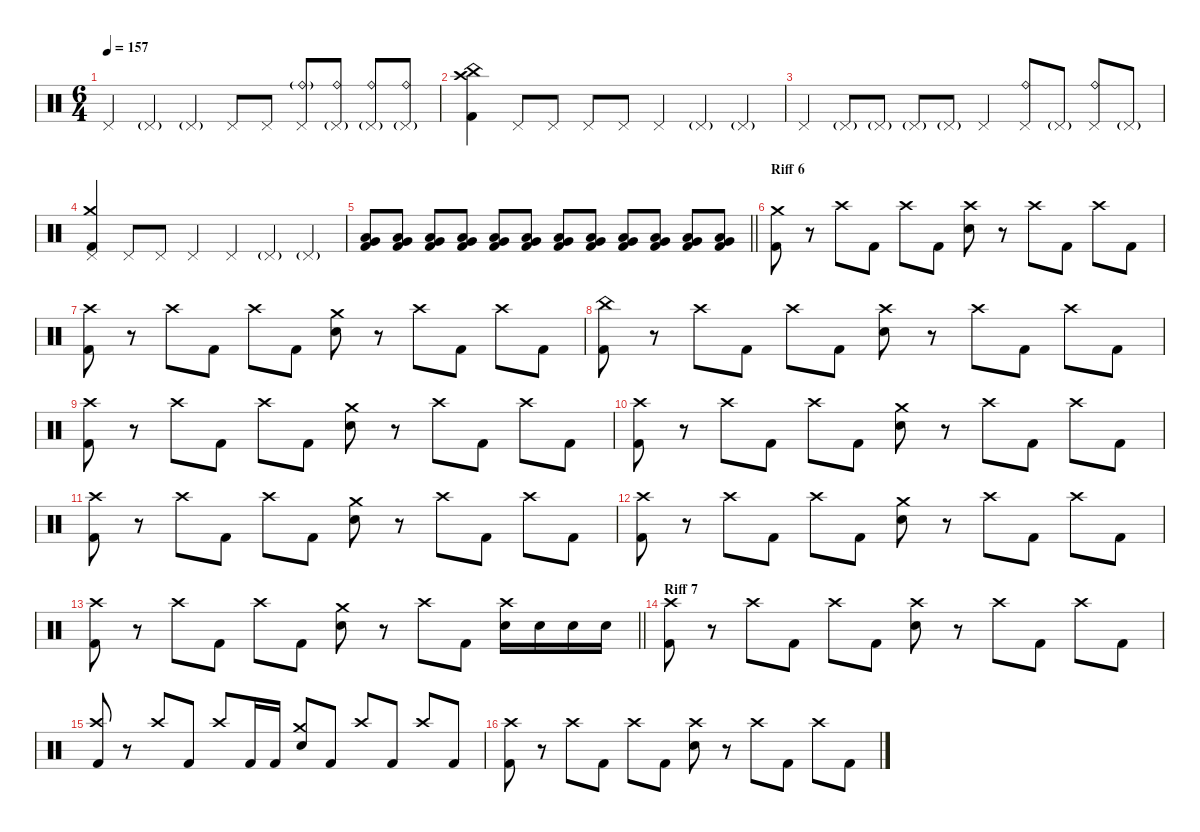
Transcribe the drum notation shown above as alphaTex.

\defaultSystemsLayout 4
\hideDynamics
\bracketExtendMode nobrackets
\singleTrackTrackNamePolicy hidden
\multiTrackTrackNamePolicy hidden
\firstSystemTrackNameMode fullname
\firstSystemTrackNameOrientation horizontal
\otherSystemsTrackNameOrientation horizontal
\track ("Drums" "drm.") {defaultSystemsLayout 4 instrument percussion}
\staff {score}
\articulation defaults
\ts (6 4)
\tempo 157
\clef neutral
\ks c "Pedal Hi-Hat (hit)".4{dy f beam Up} "Pedal Hi-Hat (hit)"{g}.4{dy mf beam Up} "Pedal Hi-Hat (hit)"{g}.4{beam Up} "Pedal Hi-Hat (hit)".8{dy f beam Up} "Pedal Hi-Hat (hit)".8{beam Up}
("Pedal Hi-Hat (hit)" "Ride (bell)"{g}).8{beam Up} ("Pedal Hi-Hat (hit)"{g} "Ride (bell)").8{beam Up} ("Pedal Hi-Hat (hit)"{g} "Ride (bell)").8{beam Up} ("Pedal Hi-Hat (hit)"{g} "Ride (bell)").8{beam Up} |
("China (hit)" "Crash high (hit)" "Kick (hit) 2").4{beam Down} "Pedal Hi-Hat (hit)".8{beam Up} "Pedal Hi-Hat (hit)".8{beam Up} "Pedal Hi-Hat (hit)".8{beam Up} "Pedal Hi-Hat (hit)".8{beam Up} "Pedal Hi-Hat (hit)".4{beam Up} "Pedal Hi-Hat (hit)"{g}.4{dy mf beam Up} "Pedal Hi-Hat (hit)"{g}.4{beam Up} |
"Pedal Hi-Hat (hit)".4{dy f beam Up} "Pedal Hi-Hat (hit)"{g}.8{dy mf beam Up} "Pedal Hi-Hat (hit)"{g}.8{beam Up} "Pedal Hi-Hat (hit)"{g}.8{beam Up} "Pedal Hi-Hat (hit)"{g}.8{beam Up} "Pedal Hi-Hat (hit)".4{dy f beam Up} ("Pedal Hi-Hat (hit)" "Ride (bell)").8{beam Up} "Pedal Hi-Hat (hit)"{g}.8{dy mf beam Up} ("Pedal Hi-Hat (hit)" "Ride (bell)").8{dy f beam Up} "Pedal Hi-Hat (hit)"{g}.8{dy mf beam Up} |
("Crash medium (hit)" "Pedal Hi-Hat (hit)" "Kick (hit) 2").4{dy f beam Up} "Pedal Hi-Hat (hit)".8{beam Up} "Pedal Hi-Hat (hit)".8{beam Up} "Pedal Hi-Hat (hit)".4{beam Up} "Pedal Hi-Hat (hit)".4{beam Up} "Pedal Hi-Hat (hit)"{g}.4{dy mf beam Up} "Pedal Hi-Hat (hit)"{g}.4{beam Up} |
\barLineRight lightlight
("Very Low Tom (hit)" "Low Tom (hit)" "Kick (hit) 2").8{dy f beam Up} ("Very Low Tom (hit)" "Low Tom (hit)" "Kick (hit) 2").8{beam Up} ("Very Low Tom (hit)" "Low Tom (hit)" "Kick (hit) 2").8{beam Up} ("Very Low Tom (hit)" "Low Tom (hit)" "Kick (hit) 2").8{beam Up} ("Very Low Tom (hit)" "Low Tom (hit)" "Kick (hit) 2").8{beam Up} ("Very Low Tom (hit)" "Low Tom (hit)" "Kick (hit) 2").8{beam Up} ("Very Low Tom (hit)" "Low Tom (hit)" "Kick (hit) 2").8{beam Up} ("Very Low Tom (hit)" "Low Tom (hit)" "Kick (hit) 2").8{beam Up} ("Very Low Tom (hit)" "Low Tom (hit)" "Kick (hit) 2").8{beam Up} ("Very Low Tom (hit)" "Low Tom (hit)" "Kick (hit) 2").8{beam Up} ("Very Low Tom (hit)" "Low Tom (hit)" "Kick (hit) 2").8{beam Up} ("Very Low Tom (hit)" "Low Tom (hit)" "Kick (hit) 2").8{beam Up} |
\section ("" "Riff 6")
("Crash medium (hit)" "Kick (hit) 2").8{beam Down} r.8{beam Down} "Crash high (hit)".8{beam Down} "Kick (hit) 2".8{beam Down} "Crash high (hit)".8{beam Down} "Kick (hit) 2".8{beam Down} ("Crash high (hit)" "Snare (hit) 2").8{beam Down} r.8{beam Down} "Crash high (hit)".8{beam Down} "Kick (hit) 2".8{beam Down} "Crash high (hit)".8{beam Down} "Kick (hit) 2".8{beam Down} |
("Crash high (hit)" "Kick (hit) 2").8{beam Down} r.8{beam Down} "Crash high (hit)".8{beam Down} "Kick (hit) 2".8{beam Down} "Crash high (hit)".8{beam Down} "Kick (hit) 2".8{beam Down} ("Crash medium (hit)" "Snare (hit) 2").8{beam Down} r.8{beam Down} "Crash high (hit)".8{beam Down} "Kick (hit) 2".8{beam Down} "Crash high (hit)".8{beam Down} "Kick (hit) 2".8{beam Down} |
("China (hit)" "Kick (hit) 2").8{beam Down} r.8{beam Down} "Crash high (hit)".8{beam Down} "Kick (hit) 2".8{beam Down} "Crash high (hit)".8{beam Down} "Kick (hit) 2".8{beam Down} ("Crash high (hit)" "Snare (hit) 2").8{beam Down} r.8{beam Down} "Crash high (hit)".8{beam Down} "Kick (hit) 2".8{beam Down} "Crash high (hit)".8{beam Down} "Kick (hit) 2".8{beam Down} |
("Crash high (hit)" "Kick (hit) 2").8{beam Down} r.8{beam Down} "Crash high (hit)".8{beam Down} "Kick (hit) 2".8{beam Down} "Crash high (hit)".8{beam Down} "Kick (hit) 2".8{beam Down} ("Crash medium (hit)" "Snare (hit) 2").8{beam Down} r.8{beam Down} "Crash high (hit)".8{beam Down} "Kick (hit) 2".8{beam Down} "Crash high (hit)".8{beam Down} "Kick (hit) 2".8{beam Down} |
("Crash high (hit)" "Kick (hit) 2").8{beam Down} r.8{beam Down} "Crash high (hit)".8{beam Down} "Kick (hit) 2".8{beam Down} "Crash high (hit)".8{beam Down} "Kick (hit) 2".8{beam Down} ("Crash medium (hit)" "Snare (hit) 2").8{beam Down} r.8{beam Down} "Crash high (hit)".8{beam Down} "Kick (hit) 2".8{beam Down} "Crash high (hit)".8{beam Down} "Kick (hit) 2".8{beam Down} |
("Crash high (hit)" "Kick (hit) 2").8{beam Down} r.8{beam Down} "Crash high (hit)".8{beam Down} "Kick (hit) 2".8{beam Down} "Crash high (hit)".8{beam Down} "Kick (hit) 2".8{beam Down} ("Crash medium (hit)" "Snare (hit) 2").8{beam Down} r.8{beam Down} "Crash high (hit)".8{beam Down} "Kick (hit) 2".8{beam Down} "Crash high (hit)".8{beam Down} "Kick (hit) 2".8{beam Down} |
("Crash high (hit)" "Kick (hit) 2").8{beam Down} r.8{beam Down} "Crash high (hit)".8{beam Down} "Kick (hit) 2".8{beam Down} "Crash high (hit)".8{beam Down} "Kick (hit) 2".8{beam Down} ("Crash medium (hit)" "Snare (hit) 2").8{beam Down} r.8{beam Down} "Crash high (hit)".8{beam Down} "Kick (hit) 2".8{beam Down} "Crash high (hit)".8{beam Down} "Kick (hit) 2".8{beam Down} |
\barLineRight lightlight
("Crash high (hit)" "Kick (hit) 2").8{beam Down} r.8{beam Down} "Crash high (hit)".8{beam Down} "Kick (hit) 2".8{beam Down} "Crash high (hit)".8{beam Down} "Kick (hit) 2".8{beam Down} ("Crash medium (hit)" "Snare (hit) 2").8{beam Down} r.8{beam Down} "Crash high (hit)".8{beam Down} "Kick (hit) 2".8{beam Down} ("Crash high (hit)" "Snare (hit) 2").16{beam Down} "Snare (hit) 2".16{beam Down} "Snare (hit) 2".16{beam Down} "Snare (hit) 2".16{beam Down} |
\section ("" "Riff 7")
("Crash high (hit)" "Kick (hit) 2").8{beam Down} r.8{beam Down} "Crash high (hit)".8{beam Down} "Kick (hit) 2".8{beam Down} "Crash high (hit)".8{beam Down} "Kick (hit) 2".8{beam Down} ("Crash high (hit)" "Snare (hit) 2").8{beam Down} r.8{beam Down} "Crash high (hit)".8{beam Down} "Kick (hit) 2".8{beam Down} "Crash high (hit)".8{beam Down} "Kick (hit) 2".8{beam Down} |
("Crash high (hit)" "Kick (hit) 2").8{beam Up} r.8{beam Up} "Crash high (hit)".8{beam Up} "Kick (hit) 2".8{beam Up} "Crash high (hit)".8{beam Up} "Kick (hit) 2".16{beam Up} "Kick (hit) 2".16{beam Up} ("Crash medium (hit)" "Snare (hit) 2").8{beam Up} "Kick (hit) 2".8{beam Up} "Crash high (hit)".8{beam Up} "Kick (hit) 2".8{beam Up} "Crash high (hit)".8{beam Up} "Kick (hit) 2".8{beam Up} |
("Crash high (hit)" "Kick (hit) 2").8{beam Down} r.8{beam Down} "Crash high (hit)".8{beam Down} "Kick (hit) 2".8{beam Down} "Crash high (hit)".8{beam Down} "Kick (hit) 2".8{beam Down} ("Crash high (hit)" "Snare (hit) 2").8{beam Down} r.8{beam Down} "Crash high (hit)".8{beam Down} "Kick (hit) 2".8{beam Down} "Crash high (hit)".8{beam Down} "Kick (hit) 2".8{beam Down}
